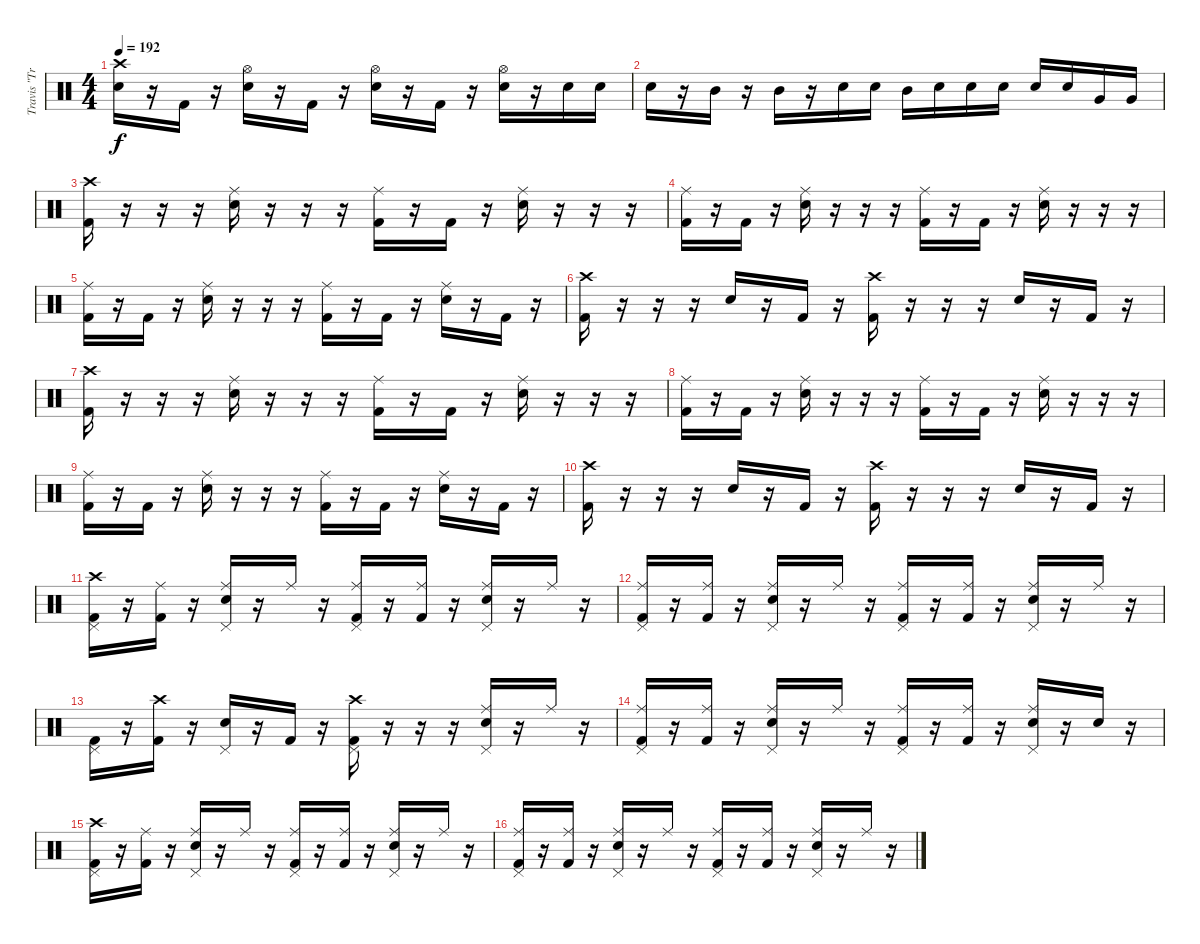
\track ("Travis \"Trevor\" Barker" "Travis \"Tr") {instrument percussion}
\staff {score}
\articulation defaults
\ts (4 4)
\tempo 192
\clef neutral
\ks c
("Crash high (hit)" "Snare (hit) 2").16{dy f} r.16 "Kick (hit) 2".16 r.16 ("Hi-Hat (open)" "Snare (hit) 2").16 r.16 "Kick (hit) 2".16 r.16 ("Hi-Hat (open)" "Snare (hit) 2").16 r.16 "Kick (hit) 2".16 r.16 ("Hi-Hat (open)" "Snare (hit) 2").16 r.16 "Snare (hit) 2".16 "Snare (hit) 2".16 |
"Snare (hit) 2".16 r.16 "Mid Tom (hit)".16 r.16 "Mid Tom (hit)".16 r.16 "Snare (hit) 2".16 "Snare (hit) 2".16 "Mid Tom (hit)".16 "Snare (hit) 2".16 "Snare (hit) 2".16 "Snare (hit) 2".16 "Snare (hit) 2".16 "Snare (hit) 2".16 "Very Low Tom (hit)".16 "Very Low Tom (hit)".16 |
("Crash high (hit)" "Kick (hit) 2").16 r.16 r.16 r.16 ("Ride (middle)" "Snare (hit) 2").16 r.16 r.16 r.16 ("Ride (middle)" "Kick (hit) 2").16 r.16 "Kick (hit) 2".16 r.16 ("Ride (middle)" "Snare (hit) 2").16 r.16 r.16 r.16 |
("Ride (middle)" "Kick (hit) 2").16 r.16 "Kick (hit) 2".16 r.16 ("Ride (middle)" "Snare (hit) 2").16 r.16 r.16 r.16 ("Ride (middle)" "Kick (hit) 2").16 r.16 "Kick (hit) 2".16 r.16 ("Ride (middle)" "Snare (hit) 2").16 r.16 r.16 r.16 |
("Ride (middle)" "Kick (hit) 2").16 r.16 "Kick (hit) 2".16 r.16 ("Ride (middle)" "Snare (hit) 2").16 r.16 r.16 r.16 ("Ride (middle)" "Kick (hit) 2").16 r.16 "Kick (hit) 2".16 r.16 ("Ride (middle)" "Snare (hit) 2").16 r.16 "Kick (hit) 2".16 r.16 |
("Crash high (hit)" "Kick (hit) 2").16 r.16 r.16 r.16 "Snare (hit) 2".16 r.16 "Kick (hit) 2".16 r.16 ("Crash high (hit)" "Kick (hit) 2").16 r.16 r.16 r.16 "Snare (hit) 2".16 r.16 "Kick (hit) 2".16 r.16 |
("Crash high (hit)" "Kick (hit) 2").16 r.16 r.16 r.16 ("Ride (middle)" "Snare (hit) 2").16 r.16 r.16 r.16 ("Ride (middle)" "Kick (hit) 2").16 r.16 "Kick (hit) 2".16 r.16 ("Ride (middle)" "Snare (hit) 2").16 r.16 r.16 r.16 |
("Ride (middle)" "Kick (hit) 2").16 r.16 "Kick (hit) 2".16 r.16 ("Ride (middle)" "Snare (hit) 2").16 r.16 r.16 r.16 ("Ride (middle)" "Kick (hit) 2").16 r.16 "Kick (hit) 2".16 r.16 ("Ride (middle)" "Snare (hit) 2").16 r.16 r.16 r.16 |
("Ride (middle)" "Kick (hit) 2").16 r.16 "Kick (hit) 2".16 r.16 ("Ride (middle)" "Snare (hit) 2").16 r.16 r.16 r.16 ("Ride (middle)" "Kick (hit) 2").16 r.16 "Kick (hit) 2".16 r.16 ("Ride (middle)" "Snare (hit) 2").16 r.16 "Kick (hit) 2".16 r.16 |
("Crash high (hit)" "Kick (hit) 2").16 r.16 r.16 r.16 "Snare (hit) 2".16 r.16 "Kick (hit) 2".16 r.16 ("Crash high (hit)" "Kick (hit) 2").16 r.16 r.16 r.16 "Snare (hit) 2".16 r.16 "Kick (hit) 2".16 r.16 |
("Crash high (hit)" "Pedal Hi-Hat (hit)" "Kick (hit) 2").16 r.16 ("Ride (middle)" "Kick (hit) 2").16 r.16 ("Ride (middle)" "Pedal Hi-Hat (hit)" "Snare (hit) 2").16 r.16 "Ride (middle)".16 r.16 ("Ride (middle)" "Pedal Hi-Hat (hit)" "Kick (hit) 2").16 r.16 ("Ride (middle)" "Kick (hit) 2").16 r.16 ("Ride (middle)" "Pedal Hi-Hat (hit)" "Snare (hit) 2").16 r.16 "Ride (middle)".16 r.16 |
("Ride (middle)" "Pedal Hi-Hat (hit)" "Kick (hit) 2").16 r.16 ("Ride (middle)" "Kick (hit) 2").16 r.16 ("Ride (middle)" "Pedal Hi-Hat (hit)" "Snare (hit) 2").16 r.16 "Ride (middle)".16 r.16 ("Ride (middle)" "Pedal Hi-Hat (hit)" "Kick (hit) 2").16 r.16 ("Ride (middle)" "Kick (hit) 2").16 r.16 ("Ride (middle)" "Pedal Hi-Hat (hit)" "Snare (hit) 2").16 r.16 "Ride (middle)".16 r.16 |
("Pedal Hi-Hat (hit)" "Kick (hit) 2").16 r.16 ("Crash high (hit)" "Kick (hit) 2").16 r.16 ("Pedal Hi-Hat (hit)" "Snare (hit) 2").16 r.16 "Kick (hit) 2".16 r.16 ("Crash high (hit)" "Pedal Hi-Hat (hit)" "Kick (hit) 2").16 r.16 r.16 r.16 ("Ride (middle)" "Pedal Hi-Hat (hit)" "Snare (hit) 2").16 r.16 "Ride (middle)".16 r.16 |
("Ride (middle)" "Pedal Hi-Hat (hit)" "Kick (hit) 2").16 r.16 ("Ride (middle)" "Kick (hit) 2").16 r.16 ("Ride (middle)" "Pedal Hi-Hat (hit)" "Snare (hit) 2").16 r.16 "Ride (middle)".16 r.16 ("Ride (middle)" "Pedal Hi-Hat (hit)" "Kick (hit) 2").16 r.16 ("Ride (middle)" "Kick (hit) 2").16 r.16 ("Ride (middle)" "Pedal Hi-Hat (hit)" "Snare (hit) 2").16 r.16 "Snare (hit) 2".16 r.16 |
("Crash high (hit)" "Pedal Hi-Hat (hit)" "Kick (hit) 2").16 r.16 ("Ride (middle)" "Kick (hit) 2").16 r.16 ("Ride (middle)" "Pedal Hi-Hat (hit)" "Snare (hit) 2").16 r.16 "Ride (middle)".16 r.16 ("Ride (middle)" "Pedal Hi-Hat (hit)" "Kick (hit) 2").16 r.16 ("Ride (middle)" "Kick (hit) 2").16 r.16 ("Ride (middle)" "Pedal Hi-Hat (hit)" "Snare (hit) 2").16 r.16 "Ride (middle)".16 r.16 |
("Ride (middle)" "Pedal Hi-Hat (hit)" "Kick (hit) 2").16 r.16 ("Ride (middle)" "Kick (hit) 2").16 r.16 ("Ride (middle)" "Pedal Hi-Hat (hit)" "Snare (hit) 2").16 r.16 "Ride (middle)".16 r.16 ("Ride (middle)" "Pedal Hi-Hat (hit)" "Kick (hit) 2").16 r.16 ("Ride (middle)" "Kick (hit) 2").16 r.16 ("Ride (middle)" "Pedal Hi-Hat (hit)" "Snare (hit) 2").16 r.16 "Ride (middle)".16 r.16
